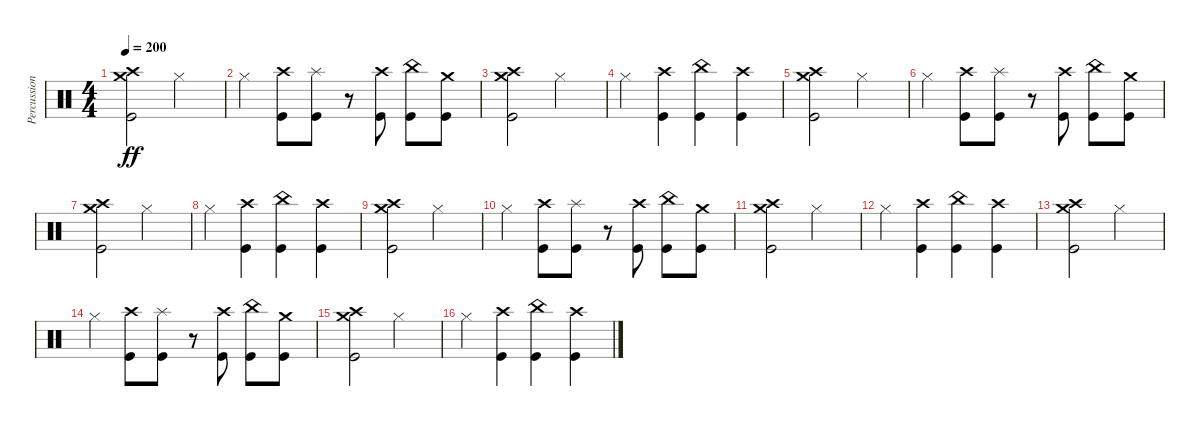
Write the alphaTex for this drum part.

\track ("Percussion" "Percussion") {instrument percussion}
\staff {score}
\articulation defaults
\ts (4 4)
\tempo 200
\clef neutral
\ks c
("Crash high (hit)" "Crash medium (hit)" "Kick (hit)").2{dy ff} "Hi-Hat (closed)".2 |
"Hi-Hat (closed)".4 ("Kick (hit)" "Crash high (hit)").8 ("Kick (hit)" "Splash (hit)").8 r.8 ("Crash high (hit)" "Kick (hit)").8 ("China (hit)" "Kick (hit)").8 ("Crash medium (hit)" "Kick (hit)").8 |
("Crash high (hit)" "Crash medium (hit)" "Kick (hit)").2 "Hi-Hat (closed)".2 |
"Hi-Hat (closed)".4 ("Crash high (hit)" "Kick (hit)").4 ("China (hit)" "Kick (hit)").4 ("Crash high (hit)" "Kick (hit)").4 |
("Crash high (hit)" "Crash medium (hit)" "Kick (hit)").2 "Hi-Hat (closed)".2 |
"Hi-Hat (closed)".4 ("Kick (hit)" "Crash high (hit)").8 ("Kick (hit)" "Splash (hit)").8 r.8 ("Crash high (hit)" "Kick (hit)").8 ("China (hit)" "Kick (hit)").8 ("Crash medium (hit)" "Kick (hit)").8 |
("Crash high (hit)" "Crash medium (hit)" "Kick (hit)").2 "Hi-Hat (closed)".2 |
"Hi-Hat (closed)".4 ("Crash high (hit)" "Kick (hit)").4 ("China (hit)" "Kick (hit)").4 ("Crash high (hit)" "Kick (hit)").4 |
("Crash high (hit)" "Crash medium (hit)" "Kick (hit)").2 "Hi-Hat (closed)".2 |
"Hi-Hat (closed)".4 ("Kick (hit)" "Crash high (hit)").8 ("Kick (hit)" "Splash (hit)").8 r.8 ("Crash high (hit)" "Kick (hit)").8 ("China (hit)" "Kick (hit)").8 ("Crash medium (hit)" "Kick (hit)").8 |
("Crash high (hit)" "Crash medium (hit)" "Kick (hit)").2 "Hi-Hat (closed)".2 |
"Hi-Hat (closed)".4 ("Crash high (hit)" "Kick (hit)").4 ("China (hit)" "Kick (hit)").4 ("Crash high (hit)" "Kick (hit)").4 |
("Crash high (hit)" "Crash medium (hit)" "Kick (hit)").2 "Hi-Hat (closed)".2 |
"Hi-Hat (closed)".4 ("Kick (hit)" "Crash high (hit)").8 ("Kick (hit)" "Splash (hit)").8 r.8 ("Crash high (hit)" "Kick (hit)").8 ("China (hit)" "Kick (hit)").8 ("Crash medium (hit)" "Kick (hit)").8 |
("Crash high (hit)" "Crash medium (hit)" "Kick (hit)").2 "Hi-Hat (closed)".2 |
"Hi-Hat (closed)".4 ("Crash high (hit)" "Kick (hit)").4 ("China (hit)" "Kick (hit)").4 ("Crash high (hit)" "Kick (hit)").4
